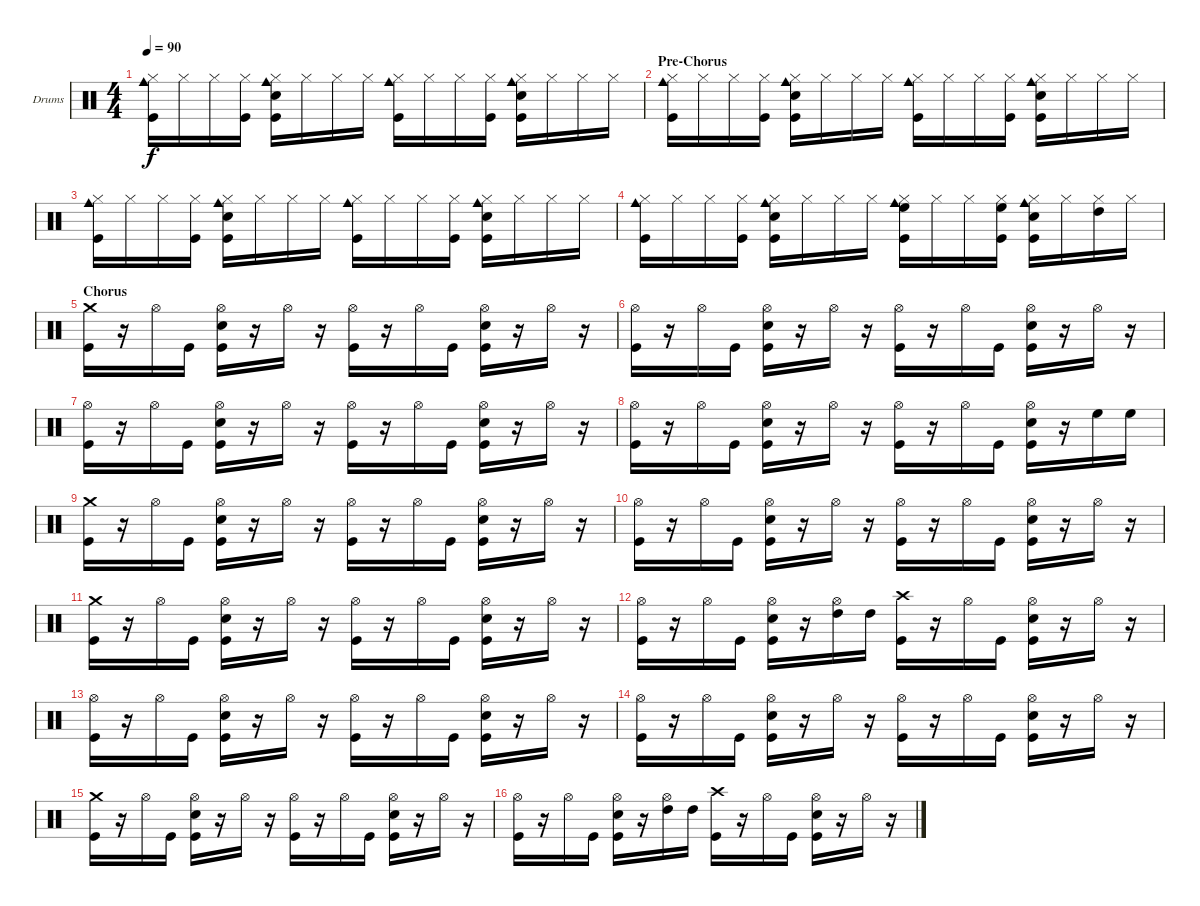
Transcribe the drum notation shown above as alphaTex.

\bracketExtendMode groupsimilarinstruments
\firstSystemTrackNameOrientation horizontal
\otherSystemsTrackNameOrientation horizontal
\track ("Drums" "Drums") {multiBarRest instrument percussion}
\staff {score}
\articulation defaults
\ts (4 4)
\tempo 90
\clef neutral
\ks c
("Hi-Hat (closed)" "Kick (hit)" "Cowbell medium (hit)").16{dy f} "Hi-Hat (closed)".16 "Hi-Hat (closed)".16 ("Hi-Hat (closed)" "Kick (hit)").16 ("Hi-Hat (closed)" "Snare (hit) 2" "Kick (hit)" "Cowbell medium (hit)").16 "Hi-Hat (closed)".16 "Hi-Hat (closed)".16 "Hi-Hat (closed)".16 ("Hi-Hat (closed)" "Kick (hit)" "Cowbell medium (hit)").16 "Hi-Hat (closed)".16 "Hi-Hat (closed)".16 ("Hi-Hat (closed)" "Kick (hit)").16 ("Hi-Hat (closed)" "Snare (hit) 2" "Kick (hit)" "Cowbell medium (hit)").16 "Hi-Hat (closed)".16 "Hi-Hat (closed)".16 "Hi-Hat (closed)".16 |
\section ("" "Pre-Chorus")
("Hi-Hat (closed)" "Kick (hit)" "Cowbell medium (hit)").16 "Hi-Hat (closed)".16 "Hi-Hat (closed)".16 ("Hi-Hat (closed)" "Kick (hit)").16 ("Hi-Hat (closed)" "Snare (hit) 2" "Kick (hit)" "Cowbell medium (hit)").16 "Hi-Hat (closed)".16 "Hi-Hat (closed)".16 "Hi-Hat (closed)".16 ("Hi-Hat (closed)" "Kick (hit)" "Cowbell medium (hit)").16 "Hi-Hat (closed)".16 "Hi-Hat (closed)".16 ("Hi-Hat (closed)" "Kick (hit)").16 ("Hi-Hat (closed)" "Snare (hit) 2" "Kick (hit)" "Cowbell medium (hit)").16 "Hi-Hat (closed)".16 "Hi-Hat (closed)".16 "Hi-Hat (closed)".16 |
("Hi-Hat (closed)" "Kick (hit)" "Cowbell medium (hit)").16 "Hi-Hat (closed)".16 "Hi-Hat (closed)".16 ("Hi-Hat (closed)" "Kick (hit)").16 ("Hi-Hat (closed)" "Snare (hit) 2" "Kick (hit)" "Cowbell medium (hit)").16 "Hi-Hat (closed)".16 "Hi-Hat (closed)".16 "Hi-Hat (closed)".16 ("Hi-Hat (closed)" "Kick (hit)" "Cowbell medium (hit)").16 "Hi-Hat (closed)".16 "Hi-Hat (closed)".16 ("Hi-Hat (closed)" "Kick (hit)").16 ("Hi-Hat (closed)" "Snare (hit) 2" "Kick (hit)" "Cowbell medium (hit)").16 "Hi-Hat (closed)".16 "Hi-Hat (closed)".16 "Hi-Hat (closed)".16 |
("Hi-Hat (closed)" "Kick (hit)" "Cowbell medium (hit)").16 "Hi-Hat (closed)".16 "Hi-Hat (closed)".16 ("Hi-Hat (closed)" "Kick (hit)").16 ("Hi-Hat (closed)" "Snare (hit) 2" "Kick (hit)" "Cowbell medium (hit)").16 "Hi-Hat (closed)".16 "Hi-Hat (closed)".16 "Hi-Hat (closed)".16 ("Hi-Hat (closed)" "High Floor Tom (hit)" "Kick (hit)" "Cowbell medium (hit)").16 "Hi-Hat (closed)".16 "Hi-Hat (closed)".16 ("Hi-Hat (closed)" "High Floor Tom (hit)" "Kick (hit)").16 ("Hi-Hat (closed)" "Snare (hit) 2" "Kick (hit)" "Cowbell medium (hit)").16 "Hi-Hat (closed)".16 ("Hi-Hat (closed)" "High Tom (hit)").16 "Hi-Hat (closed)".16 |
\section ("" "Chorus")
("Crash medium (hit)" "Kick (hit)").16 r.16 "Hi-Hat (open)".16 "Kick (hit)".16 ("Hi-Hat (open)" "Snare (hit) 2" "Kick (hit)").16 r.16 "Hi-Hat (open)".16 r.16 ("Hi-Hat (open)" "Kick (hit)").16 r.16 "Hi-Hat (open)".16 "Kick (hit)".16 ("Hi-Hat (open)" "Snare (hit) 2" "Kick (hit)").16 r.16 "Hi-Hat (open)".16 r.16 |
("Hi-Hat (open)" "Kick (hit)").16 r.16 "Hi-Hat (open)".16 "Kick (hit)".16 ("Hi-Hat (open)" "Snare (hit) 2" "Kick (hit)").16 r.16 "Hi-Hat (open)".16 r.16 ("Hi-Hat (open)" "Kick (hit)").16 r.16 "Hi-Hat (open)".16 "Kick (hit)".16 ("Hi-Hat (open)" "Snare (hit) 2" "Kick (hit)").16 r.16 "Hi-Hat (open)".16 r.16 |
("Hi-Hat (open)" "Kick (hit)").16 r.16 "Hi-Hat (open)".16 "Kick (hit)".16 ("Hi-Hat (open)" "Snare (hit) 2" "Kick (hit)").16 r.16 "Hi-Hat (open)".16 r.16 ("Hi-Hat (open)" "Kick (hit)").16 r.16 "Hi-Hat (open)".16 "Kick (hit)".16 ("Hi-Hat (open)" "Snare (hit) 2" "Kick (hit)").16 r.16 "Hi-Hat (open)".16 r.16 |
("Hi-Hat (open)" "Kick (hit)").16 r.16 "Hi-Hat (open)".16 "Kick (hit)".16 ("Hi-Hat (open)" "Snare (hit) 2" "Kick (hit)").16 r.16 "Hi-Hat (open)".16 r.16 ("Hi-Hat (open)" "Kick (hit)").16 r.16 "Hi-Hat (open)".16 "Kick (hit)".16 ("Hi-Hat (open)" "Snare (hit) 2" "Kick (hit)").16 r.16 "High Floor Tom (hit)".16 "High Floor Tom (hit)".16 |
("Crash medium (hit)" "Kick (hit)").16 r.16 "Hi-Hat (open)".16 "Kick (hit)".16 ("Hi-Hat (open)" "Snare (hit) 2" "Kick (hit)").16 r.16 "Hi-Hat (open)".16 r.16 ("Hi-Hat (open)" "Kick (hit)").16 r.16 "Hi-Hat (open)".16 "Kick (hit)".16 ("Hi-Hat (open)" "Snare (hit) 2" "Kick (hit)").16 r.16 "Hi-Hat (open)".16 r.16 |
("Hi-Hat (open)" "Kick (hit)").16 r.16 "Hi-Hat (open)".16 "Kick (hit)".16 ("Hi-Hat (open)" "Snare (hit) 2" "Kick (hit)").16 r.16 "Hi-Hat (open)".16 r.16 ("Hi-Hat (open)" "Kick (hit)").16 r.16 "Hi-Hat (open)".16 "Kick (hit)".16 ("Hi-Hat (open)" "Snare (hit) 2" "Kick (hit)").16 r.16 "Hi-Hat (open)".16 r.16 |
("Crash medium (hit)" "Kick (hit)").16 r.16 "Hi-Hat (open)".16 "Kick (hit)".16 ("Hi-Hat (open)" "Snare (hit) 2" "Kick (hit)").16 r.16 "Hi-Hat (open)".16 r.16 ("Hi-Hat (open)" "Kick (hit)").16 r.16 "Hi-Hat (open)".16 "Kick (hit)".16 ("Hi-Hat (open)" "Snare (hit) 2" "Kick (hit)").16 r.16 "Hi-Hat (open)".16 r.16 |
("Hi-Hat (open)" "Kick (hit)").16 r.16 "Hi-Hat (open)".16 "Kick (hit)".16 ("Hi-Hat (open)" "Snare (hit) 2" "Kick (hit)").16 r.16 ("Hi-Hat (open)" "High Tom (hit)").16 "High Tom (hit)".16 ("Crash high (hit)" "Kick (hit)").16 r.16 "Hi-Hat (open)".16 "Kick (hit)".16 ("Hi-Hat (open)" "Snare (hit) 2" "Kick (hit)").16 r.16 "Hi-Hat (open)".16 r.16 |
("Hi-Hat (open)" "Kick (hit)").16 r.16 "Hi-Hat (open)".16 "Kick (hit)".16 ("Hi-Hat (open)" "Snare (hit) 2" "Kick (hit)").16 r.16 "Hi-Hat (open)".16 r.16 ("Hi-Hat (open)" "Kick (hit)").16 r.16 "Hi-Hat (open)".16 "Kick (hit)".16 ("Hi-Hat (open)" "Snare (hit) 2" "Kick (hit)").16 r.16 "Hi-Hat (open)".16 r.16 |
("Hi-Hat (open)" "Kick (hit)").16 r.16 "Hi-Hat (open)".16 "Kick (hit)".16 ("Hi-Hat (open)" "Snare (hit) 2" "Kick (hit)").16 r.16 "Hi-Hat (open)".16 r.16 ("Hi-Hat (open)" "Kick (hit)").16 r.16 "Hi-Hat (open)".16 "Kick (hit)".16 ("Hi-Hat (open)" "Snare (hit) 2" "Kick (hit)").16 r.16 "Hi-Hat (open)".16 r.16 |
("Crash medium (hit)" "Kick (hit)").16 r.16 "Hi-Hat (open)".16 "Kick (hit)".16 ("Hi-Hat (open)" "Snare (hit) 2" "Kick (hit)").16 r.16 "Hi-Hat (open)".16 r.16 ("Hi-Hat (open)" "Kick (hit)").16 r.16 "Hi-Hat (open)".16 "Kick (hit)".16 ("Hi-Hat (open)" "Snare (hit) 2" "Kick (hit)").16 r.16 "Hi-Hat (open)".16 r.16 |
("Hi-Hat (open)" "Kick (hit)").16 r.16 "Hi-Hat (open)".16 "Kick (hit)".16 ("Hi-Hat (open)" "Snare (hit) 2" "Kick (hit)").16 r.16 ("Hi-Hat (open)" "High Tom (hit)").16 "High Tom (hit)".16 ("Crash high (hit)" "Kick (hit)").16 r.16 "Hi-Hat (open)".16 "Kick (hit)".16 ("Hi-Hat (open)" "Snare (hit) 2" "Kick (hit)").16 r.16 "Hi-Hat (open)".16 r.16
